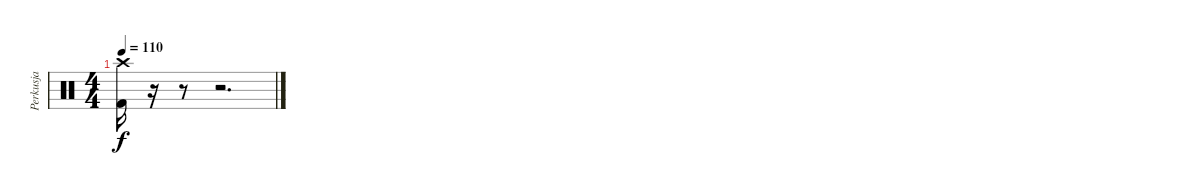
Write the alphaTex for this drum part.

\track ("Perkusja" "Perkusja") {instrument percussion}
\staff {score}
\articulation defaults
\ts (4 4)
\tempo 110
\clef neutral
\ks c
("Kick (hit) 2" "Crash high (hit)").16{dy f} r.16 r.8 r.2{d}
